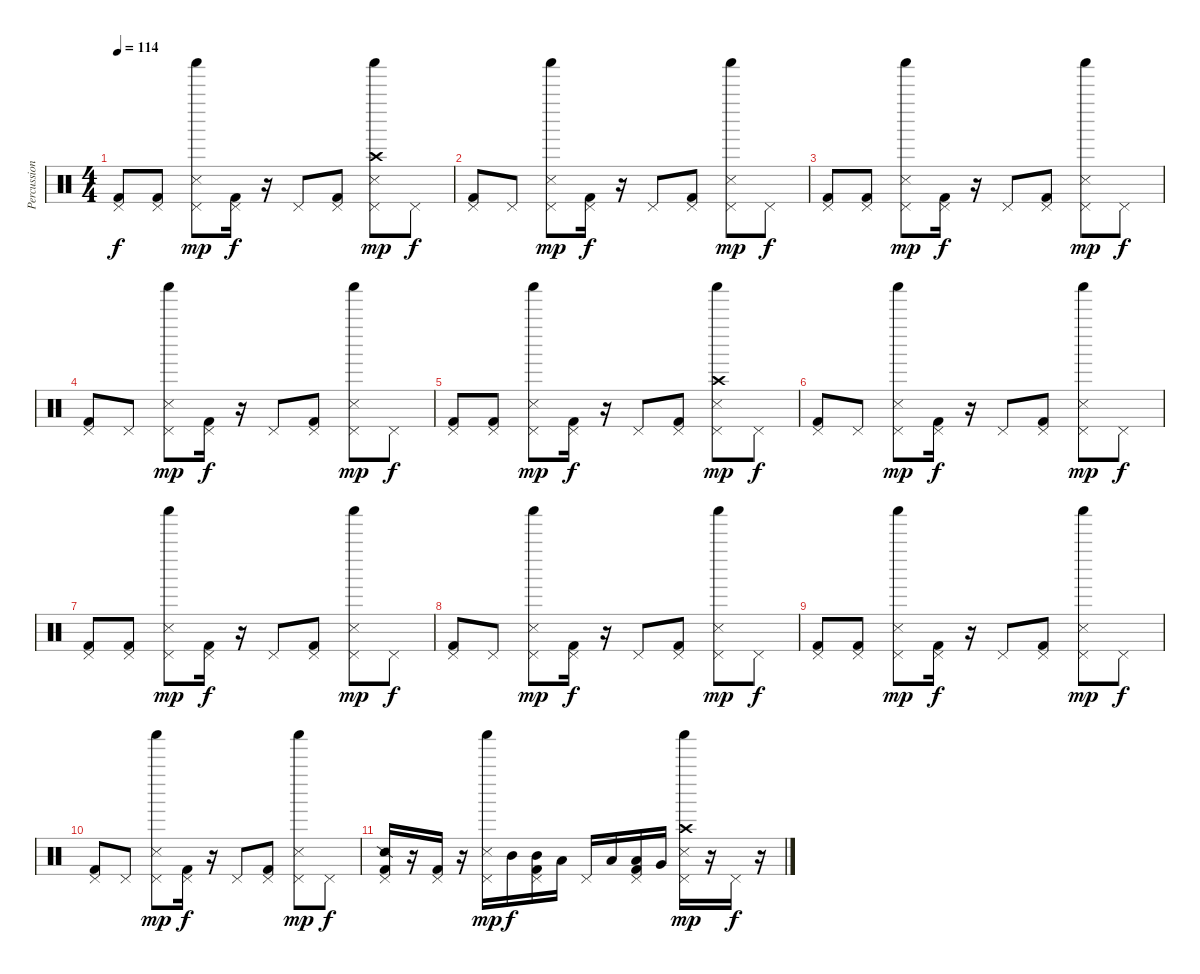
\track ("Percussion" "Percussion") {instrument percussion}
\staff {score}
\articulation defaults
\ts (4 4)
\tempo 114
\clef neutral
\ks c
("Pedal Hi-Hat (hit)" "Kick (hit) 2").8{dy f} ("Pedal Hi-Hat (hit)" "Kick (hit) 2").8 ("Pedal Hi-Hat (hit)" "Snare (side stick) 3" "Shaker (hit)").8{dy mp} ("Pedal Hi-Hat (hit)" "Kick (hit) 2").16{dy f} r.16 "Pedal Hi-Hat (hit)".8 ("Pedal Hi-Hat (hit)" "Kick (hit) 2").8 ("Pedal Hi-Hat (hit)" "Crash high (hit)" "Snare (side stick) 3" "Shaker (hit)").8{dy mp} "Pedal Hi-Hat (hit)".8{dy f} |
("Pedal Hi-Hat (hit)" "Kick (hit) 2").8 "Pedal Hi-Hat (hit)".8 ("Pedal Hi-Hat (hit)" "Snare (side stick) 3" "Shaker (hit)").8{dy mp} ("Pedal Hi-Hat (hit)" "Kick (hit) 2").16{dy f} r.16 "Pedal Hi-Hat (hit)".8 ("Pedal Hi-Hat (hit)" "Kick (hit) 2").8 ("Pedal Hi-Hat (hit)" "Snare (side stick) 3" "Shaker (hit)").8{dy mp} "Pedal Hi-Hat (hit)".8{dy f} |
("Pedal Hi-Hat (hit)" "Kick (hit) 2").8 ("Pedal Hi-Hat (hit)" "Kick (hit) 2").8 ("Pedal Hi-Hat (hit)" "Snare (side stick) 3" "Shaker (hit)").8{dy mp} ("Pedal Hi-Hat (hit)" "Kick (hit) 2").16{dy f} r.16 "Pedal Hi-Hat (hit)".8 ("Pedal Hi-Hat (hit)" "Kick (hit) 2").8 ("Pedal Hi-Hat (hit)" "Snare (side stick) 3" "Shaker (hit)").8{dy mp} "Pedal Hi-Hat (hit)".8{dy f} |
("Pedal Hi-Hat (hit)" "Kick (hit) 2").8 "Pedal Hi-Hat (hit)".8 ("Pedal Hi-Hat (hit)" "Snare (side stick) 3" "Shaker (hit)").8{dy mp} ("Pedal Hi-Hat (hit)" "Kick (hit) 2").16{dy f} r.16 "Pedal Hi-Hat (hit)".8 ("Pedal Hi-Hat (hit)" "Kick (hit) 2").8 ("Pedal Hi-Hat (hit)" "Snare (side stick) 3" "Shaker (hit)").8{dy mp} "Pedal Hi-Hat (hit)".8{dy f} |
("Pedal Hi-Hat (hit)" "Kick (hit) 2").8 ("Pedal Hi-Hat (hit)" "Kick (hit) 2").8 ("Pedal Hi-Hat (hit)" "Snare (side stick) 3" "Shaker (hit)").8{dy mp} ("Pedal Hi-Hat (hit)" "Kick (hit) 2").16{dy f} r.16 "Pedal Hi-Hat (hit)".8 ("Pedal Hi-Hat (hit)" "Kick (hit) 2").8 ("Pedal Hi-Hat (hit)" "Crash high (hit)" "Snare (side stick) 3" "Shaker (hit)").8{dy mp} "Pedal Hi-Hat (hit)".8{dy f} |
("Pedal Hi-Hat (hit)" "Kick (hit) 2").8 "Pedal Hi-Hat (hit)".8 ("Pedal Hi-Hat (hit)" "Snare (side stick) 3" "Shaker (hit)").8{dy mp} ("Pedal Hi-Hat (hit)" "Kick (hit) 2").16{dy f} r.16 "Pedal Hi-Hat (hit)".8 ("Pedal Hi-Hat (hit)" "Kick (hit) 2").8 ("Pedal Hi-Hat (hit)" "Snare (side stick) 3" "Shaker (hit)").8{dy mp} "Pedal Hi-Hat (hit)".8{dy f} |
("Pedal Hi-Hat (hit)" "Kick (hit) 2").8 ("Pedal Hi-Hat (hit)" "Kick (hit) 2").8 ("Pedal Hi-Hat (hit)" "Snare (side stick) 3" "Shaker (hit)").8{dy mp} ("Pedal Hi-Hat (hit)" "Kick (hit) 2").16{dy f} r.16 "Pedal Hi-Hat (hit)".8 ("Pedal Hi-Hat (hit)" "Kick (hit) 2").8 ("Pedal Hi-Hat (hit)" "Snare (side stick) 3" "Shaker (hit)").8{dy mp} "Pedal Hi-Hat (hit)".8{dy f} |
("Pedal Hi-Hat (hit)" "Kick (hit) 2").8 "Pedal Hi-Hat (hit)".8 ("Pedal Hi-Hat (hit)" "Snare (side stick) 3" "Shaker (hit)").8{dy mp} ("Pedal Hi-Hat (hit)" "Kick (hit) 2").16{dy f} r.16 "Pedal Hi-Hat (hit)".8 ("Pedal Hi-Hat (hit)" "Kick (hit) 2").8 ("Pedal Hi-Hat (hit)" "Snare (side stick) 3" "Shaker (hit)").8{dy mp} "Pedal Hi-Hat (hit)".8{dy f} |
("Pedal Hi-Hat (hit)" "Kick (hit) 2").8 ("Pedal Hi-Hat (hit)" "Kick (hit) 2").8 ("Pedal Hi-Hat (hit)" "Snare (side stick) 3" "Shaker (hit)").8{dy mp} ("Pedal Hi-Hat (hit)" "Kick (hit) 2").16{dy f} r.16 "Pedal Hi-Hat (hit)".8 ("Pedal Hi-Hat (hit)" "Kick (hit) 2").8 ("Pedal Hi-Hat (hit)" "Snare (side stick) 3" "Shaker (hit)").8{dy mp} "Pedal Hi-Hat (hit)".8{dy f} |
("Pedal Hi-Hat (hit)" "Kick (hit) 2").8 "Pedal Hi-Hat (hit)".8 ("Pedal Hi-Hat (hit)" "Snare (side stick) 3" "Shaker (hit)").8{dy mp} ("Pedal Hi-Hat (hit)" "Kick (hit) 2").16{dy f} r.16 "Pedal Hi-Hat (hit)".8 ("Pedal Hi-Hat (hit)" "Kick (hit) 2").8 ("Pedal Hi-Hat (hit)" "Snare (side stick) 3" "Shaker (hit)").8{dy mp} "Pedal Hi-Hat (hit)".8{dy f} |
("Pedal Hi-Hat (hit)" "Snare (side stick) 2" "Kick (hit) 2").16 r.16 ("Pedal Hi-Hat (hit)" "Kick (hit) 2").16 r.16 ("Pedal Hi-Hat (hit)" "Snare (side stick) 3" "Shaker (hit)").16{dy mp} "Mid Tom (hit)".16{dy f} ("Pedal Hi-Hat (hit)" "Mid Tom (hit)" "Kick (hit) 2").16 "Low Tom (hit)".16 "Pedal Hi-Hat (hit)".16 "Low Tom (hit)".16 ("Pedal Hi-Hat (hit)" "Low Tom (hit)" "Kick (hit) 2").16 "Very Low Tom (hit)".16 ("Pedal Hi-Hat (hit)" "Crash high (hit)" "Snare (side stick) 3" "Shaker (hit)").16{dy mp} r.16 "Pedal Hi-Hat (hit)".16{dy f} r.16
